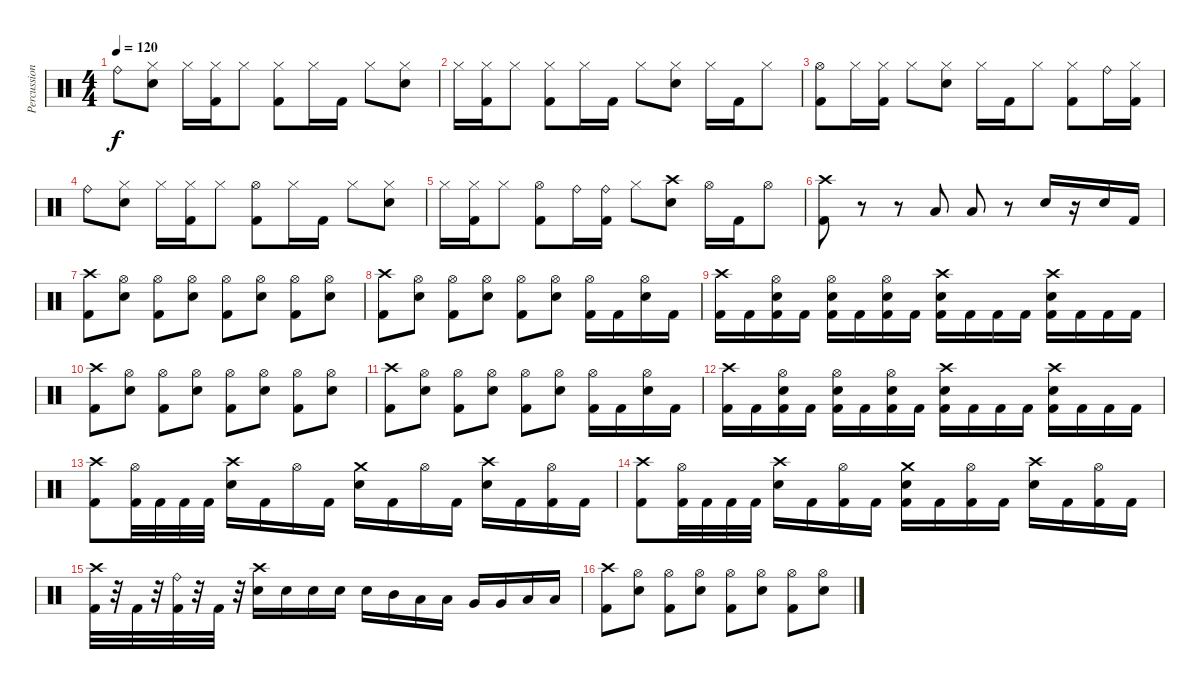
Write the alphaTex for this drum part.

\track ("Percussion" "Percussion") {instrument percussion}
\staff {score}
\articulation defaults
\ts (4 4)
\tempo 120
\clef neutral
\ks c "Ride (bell)".8{dy f}
("Hi-Hat (closed)" "Snare (hit) 2").8 "Hi-Hat (closed)".16 ("Hi-Hat (closed)" "Kick (hit) 2").16 "Hi-Hat (closed)".8 ("Hi-Hat (closed)" "Kick (hit) 2").8 "Hi-Hat (closed)".16 "Kick (hit) 2".16 "Hi-Hat (closed)".8 ("Hi-Hat (closed)" "Snare (hit) 2").8 |
"Hi-Hat (closed)".16 ("Hi-Hat (closed)" "Kick (hit) 2").16 "Hi-Hat (closed)".8 ("Hi-Hat (closed)" "Kick (hit) 2").8 "Hi-Hat (closed)".16 "Kick (hit) 2".16 "Hi-Hat (closed)".8 ("Hi-Hat (closed)" "Snare (hit) 2").8 "Hi-Hat (closed)".16 "Kick (hit) 2".16 "Hi-Hat (closed)".8 |
("Hi-Hat (open)" "Kick (hit) 2").8 "Hi-Hat (closed)".16 ("Hi-Hat (closed)" "Kick (hit) 2").16 "Hi-Hat (closed)".8 ("Hi-Hat (closed)" "Snare (hit) 2").8 "Hi-Hat (closed)".16 "Kick (hit) 2".16 "Hi-Hat (closed)".8 ("Hi-Hat (closed)" "Kick (hit) 2").8 "Ride (bell)".16 ("Hi-Hat (closed)" "Kick (hit) 2").16 |
"Ride (bell)".8 ("Hi-Hat (closed)" "Snare (hit) 2").8 "Hi-Hat (closed)".16 ("Hi-Hat (closed)" "Kick (hit) 2").16 "Hi-Hat (closed)".8 ("Hi-Hat (open)" "Kick (hit) 2").8 "Hi-Hat (closed)".16 "Kick (hit) 2".16 "Hi-Hat (closed)".8 ("Hi-Hat (closed)" "Snare (hit) 2").8 |
"Hi-Hat (closed)".16 ("Hi-Hat (closed)" "Kick (hit) 2").16 "Hi-Hat (closed)".8 ("Hi-Hat (open)" "Kick (hit) 2").8 "Ride (bell)".16 ("Ride (bell)" "Kick (hit) 2").16 "Hi-Hat (closed)".8 ("Crash high (hit)" "Snare (hit) 2").8 "Hi-Hat (open)".16 "Kick (hit) 2".16 "Hi-Hat (open)".8 |
("Crash high (hit)" "Kick (hit) 2").8 r.8 r.8 "Low Tom (hit)".8 "Low Tom (hit)".8 r.8 "Snare (hit) 2".16 r.16 "Snare (hit) 2".16 "Kick (hit) 2".16 |
("Crash high (hit)" "Kick (hit) 2").8 ("Hi-Hat (open)" "Snare (hit) 2").8 ("Hi-Hat (open)" "Kick (hit) 2").8 ("Hi-Hat (open)" "Snare (hit) 2").8 ("Hi-Hat (open)" "Kick (hit) 2").8 ("Hi-Hat (open)" "Snare (hit) 2").8 ("Hi-Hat (open)" "Kick (hit) 2").8 ("Hi-Hat (open)" "Snare (hit) 2").8 |
("Crash high (hit)" "Kick (hit) 2").8 ("Hi-Hat (open)" "Snare (hit) 2").8 ("Hi-Hat (open)" "Kick (hit) 2").8 ("Hi-Hat (open)" "Snare (hit) 2").8 ("Hi-Hat (open)" "Kick (hit) 2").8 ("Hi-Hat (open)" "Snare (hit) 2").8 ("Hi-Hat (open)" "Kick (hit) 2").16 "Kick (hit) 2".16 ("Hi-Hat (open)" "Snare (hit) 2").16 "Kick (hit) 2".16 |
("Crash high (hit)" "Kick (hit) 2").16 "Kick (hit) 2".16 ("Hi-Hat (open)" "Snare (hit) 2" "Kick (hit) 2").16 "Kick (hit) 2".16 ("Hi-Hat (open)" "Snare (hit) 2" "Kick (hit) 2").16 "Kick (hit) 2".16 ("Hi-Hat (open)" "Snare (hit) 2" "Kick (hit) 2").16 "Kick (hit) 2".16 ("Crash high (hit)" "Snare (hit) 2" "Kick (hit) 2").16 "Kick (hit) 2".16 "Kick (hit) 2".16 "Kick (hit) 2".16 ("Crash high (hit)" "Snare (hit) 2" "Kick (hit) 2").16 "Kick (hit) 2".16 "Kick (hit) 2".16 "Kick (hit) 2".16 |
("Crash high (hit)" "Kick (hit) 2").8 ("Hi-Hat (open)" "Snare (hit) 2").8 ("Hi-Hat (open)" "Kick (hit) 2").8 ("Hi-Hat (open)" "Snare (hit) 2").8 ("Hi-Hat (open)" "Kick (hit) 2").8 ("Hi-Hat (open)" "Snare (hit) 2").8 ("Hi-Hat (open)" "Kick (hit) 2").8 ("Hi-Hat (open)" "Snare (hit) 2").8 |
("Crash high (hit)" "Kick (hit) 2").8 ("Hi-Hat (open)" "Snare (hit) 2").8 ("Hi-Hat (open)" "Kick (hit) 2").8 ("Hi-Hat (open)" "Snare (hit) 2").8 ("Hi-Hat (open)" "Kick (hit) 2").8 ("Hi-Hat (open)" "Snare (hit) 2").8 ("Hi-Hat (open)" "Kick (hit) 2").16 "Kick (hit) 2".16 ("Hi-Hat (open)" "Snare (hit) 2").16 "Kick (hit) 2".16 |
("Crash high (hit)" "Kick (hit) 2").16 "Kick (hit) 2".16 ("Hi-Hat (open)" "Snare (hit) 2" "Kick (hit) 2").16 "Kick (hit) 2".16 ("Hi-Hat (open)" "Snare (hit) 2" "Kick (hit) 2").16 "Kick (hit) 2".16 ("Hi-Hat (open)" "Snare (hit) 2" "Kick (hit) 2").16 "Kick (hit) 2".16 ("Crash high (hit)" "Snare (hit) 2" "Kick (hit) 2").16 "Kick (hit) 2".16 "Kick (hit) 2".16 "Kick (hit) 2".16 ("Crash high (hit)" "Snare (hit) 2" "Kick (hit) 2").16 "Kick (hit) 2".16 "Kick (hit) 2".16 "Kick (hit) 2".16 |
("Crash high (hit)" "Kick (hit) 2").8 ("Hi-Hat (open)" "Kick (hit) 2").32 "Kick (hit) 2".32 "Kick (hit) 2".32 "Kick (hit) 2".32 ("Crash high (hit)" "Snare (hit) 2").16 "Kick (hit) 2".16 "Hi-Hat (open)".16 "Kick (hit) 2".16 ("Crash medium (hit)" "Snare (hit) 2").16 "Kick (hit) 2".16 "Hi-Hat (open)".16 "Kick (hit) 2".16 ("Crash high (hit)" "Snare (hit) 2").16 "Kick (hit) 2".16 ("Hi-Hat (open)" "Kick (hit) 2").16 "Kick (hit) 2".16 |
("Crash high (hit)" "Kick (hit) 2").8 ("Hi-Hat (open)" "Kick (hit) 2").32 "Kick (hit) 2".32 "Kick (hit) 2".32 "Kick (hit) 2".32 ("Crash high (hit)" "Snare (hit) 2").16 "Kick (hit) 2".16 ("Hi-Hat (open)" "Kick (hit) 2").16 "Kick (hit) 2".16 ("Crash medium (hit)" "Snare (hit) 2" "Kick (hit) 2").16 "Kick (hit) 2".16 ("Hi-Hat (open)" "Kick (hit) 2").16 "Kick (hit) 2".16 ("Crash high (hit)" "Snare (hit) 2").16 "Kick (hit) 2".16 ("Hi-Hat (open)" "Kick (hit) 2").16 "Kick (hit) 2".16 |
("Crash high (hit)" "Kick (hit) 2").32 r.32 "Kick (hit) 2".32 r.32 ("Ride (bell)" "Kick (hit) 2").32 r.32 "Kick (hit) 2".32 r.32 ("Crash high (hit)" "Snare (hit) 2").16 "Snare (hit) 2".16 "Snare (hit) 2".16 "Snare (hit) 2".16 "Snare (hit) 2".16 "Mid Tom (hit)".16 "Low Tom (hit)".16 "Low Tom (hit)".16 "Very Low Tom (hit)".16 "Very Low Tom (hit)".16 "Low Floor Tom (hit)".16 "Low Floor Tom (hit)".16 |
("Crash high (hit)" "Kick (hit) 2").8 ("Hi-Hat (open)" "Snare (hit) 2").8 ("Hi-Hat (open)" "Kick (hit) 2").8 ("Hi-Hat (open)" "Snare (hit) 2").8 ("Hi-Hat (open)" "Kick (hit) 2").8 ("Hi-Hat (open)" "Snare (hit) 2").8 ("Hi-Hat (open)" "Kick (hit) 2").8 ("Hi-Hat (open)" "Snare (hit) 2").8
